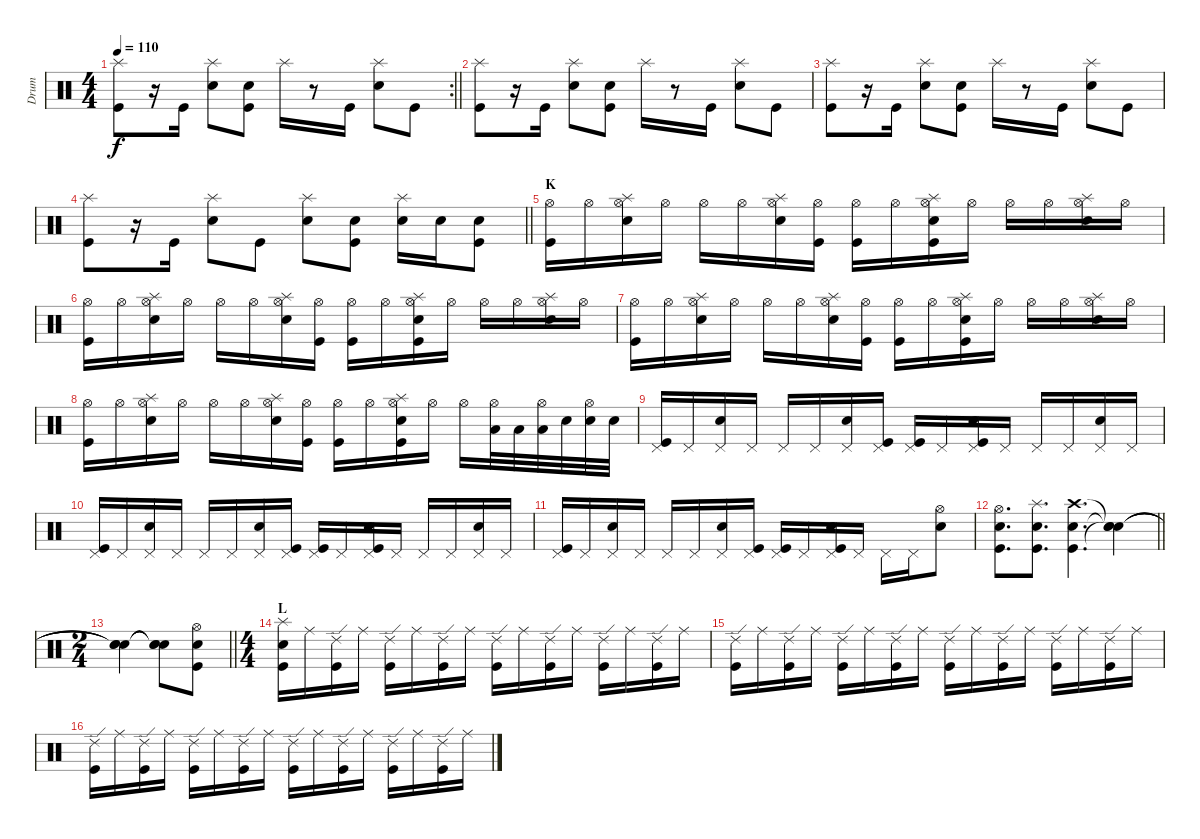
\track ("Drum" "Drum") {instrument percussion}
\staff {score}
\articulation defaults
\rc 2
\ts (4 4)
\tempo 110
\clef neutral
\barLineRight lightlight
\ks c
("Splash (hit)" "Kick (hit)").8{dy f} r.16 "Kick (hit)".16 ("Splash (hit)" "Snare (hit) 2").8 ("Snare (hit) 2" "Kick (hit)").8 "Splash (hit)".16 r.8 "Kick (hit)".16 ("Splash (hit)" "Snare (hit) 2").8 "Kick (hit)".8 |
("Splash (hit)" "Kick (hit)").8 r.16 "Kick (hit)".16 ("Splash (hit)" "Snare (hit) 2").8 ("Snare (hit) 2" "Kick (hit)").8 "Splash (hit)".16 r.8 "Kick (hit)".16 ("Splash (hit)" "Snare (hit) 2").8 "Kick (hit)".8 |
("Splash (hit)" "Kick (hit)").8 r.16 "Kick (hit)".16 ("Splash (hit)" "Snare (hit) 2").8 ("Snare (hit) 2" "Kick (hit)").8 "Splash (hit)".16 r.8 "Kick (hit)".16 ("Splash (hit)" "Snare (hit) 2").8 "Kick (hit)".8 |
\barLineRight lightlight
("Splash (hit)" "Kick (hit)").8 r.16 "Kick (hit)".16 ("Splash (hit)" "Snare (hit) 2").8 "Kick (hit)".8 ("Splash (hit)" "Snare (hit) 2").8 ("Snare (hit) 2" "Kick (hit)").8 ("Splash (hit)" "Snare (hit) 2").16 "Snare (hit) 2".16 ("Snare (hit) 2" "Kick (hit)").8 |
\section ("" "K")
("Hi-Hat (open)" "Kick (hit)").16 "Hi-Hat (open)".16 ("Hi-Hat (open)" "Splash (hit)" "Snare (hit) 2").16 "Hi-Hat (open)".16 "Hi-Hat (open)".16 "Hi-Hat (open)".16 ("Hi-Hat (open)" "Splash (hit)" "Snare (hit) 2").16 ("Hi-Hat (open)" "Kick (hit)").16 ("Hi-Hat (open)" "Kick (hit)").16 "Hi-Hat (open)".16 ("Hi-Hat (open)" "Splash (hit)" "Snare (hit) 2" "Kick (hit)").16 "Hi-Hat (open)".16 "Hi-Hat (open)".16 "Hi-Hat (open)".16 ("Hi-Hat (open)" "Splash (hit)" "Snare (hit) 2").16 "Hi-Hat (open)".16 |
("Hi-Hat (open)" "Kick (hit)").16 "Hi-Hat (open)".16 ("Hi-Hat (open)" "Splash (hit)" "Snare (hit) 2").16 "Hi-Hat (open)".16 "Hi-Hat (open)".16 "Hi-Hat (open)".16 ("Hi-Hat (open)" "Splash (hit)" "Snare (hit) 2").16 ("Hi-Hat (open)" "Kick (hit)").16 ("Hi-Hat (open)" "Kick (hit)").16 "Hi-Hat (open)".16 ("Hi-Hat (open)" "Splash (hit)" "Snare (hit) 2" "Kick (hit)").16 "Hi-Hat (open)".16 "Hi-Hat (open)".16 "Hi-Hat (open)".16 ("Hi-Hat (open)" "Splash (hit)" "Snare (hit) 2").16 "Hi-Hat (open)".16 |
("Hi-Hat (open)" "Kick (hit)").16 "Hi-Hat (open)".16 ("Hi-Hat (open)" "Splash (hit)" "Snare (hit) 2").16 "Hi-Hat (open)".16 "Hi-Hat (open)".16 "Hi-Hat (open)".16 ("Hi-Hat (open)" "Splash (hit)" "Snare (hit) 2").16 ("Hi-Hat (open)" "Kick (hit)").16 ("Hi-Hat (open)" "Kick (hit)").16 "Hi-Hat (open)".16 ("Hi-Hat (open)" "Splash (hit)" "Snare (hit) 2" "Kick (hit)").16 "Hi-Hat (open)".16 "Hi-Hat (open)".16 "Hi-Hat (open)".16 ("Hi-Hat (open)" "Splash (hit)" "Snare (hit) 2").16 "Hi-Hat (open)".16 |
("Hi-Hat (open)" "Kick (hit)").16 "Hi-Hat (open)".16 ("Hi-Hat (open)" "Splash (hit)" "Snare (hit) 2").16 "Hi-Hat (open)".16 "Hi-Hat (open)".16 "Hi-Hat (open)".16 ("Hi-Hat (open)" "Splash (hit)" "Snare (hit) 2").16 ("Hi-Hat (open)" "Kick (hit)").16 ("Hi-Hat (open)" "Kick (hit)").16 "Hi-Hat (open)".16 ("Hi-Hat (open)" "Splash (hit)" "Snare (hit) 2" "Kick (hit)").16 "Hi-Hat (open)".16 "Hi-Hat (open)".16 ("Hi-Hat (open)" "Low Tom (hit)").32 "Low Tom (hit)".32 ("Hi-Hat (open)" "Low Tom (hit)").32 "Snare (hit) 2".32 ("Hi-Hat (open)" "Snare (hit) 2").32 "Snare (hit) 2".32 |
("Pedal Hi-Hat (hit)" "Kick (hit)").16 "Pedal Hi-Hat (hit)".16 ("Pedal Hi-Hat (hit)" "Snare (hit) 2").16 "Pedal Hi-Hat (hit)".16 "Pedal Hi-Hat (hit)".16 "Pedal Hi-Hat (hit)".16 ("Pedal Hi-Hat (hit)" "Snare (hit) 2").16 ("Pedal Hi-Hat (hit)" "Kick (hit)").16 ("Pedal Hi-Hat (hit)" "Kick (hit)").16 "Pedal Hi-Hat (hit)".16 ("Pedal Hi-Hat (hit)" "Snare (hit) 2" "Kick (hit)").16 "Pedal Hi-Hat (hit)".16 "Pedal Hi-Hat (hit)".16 "Pedal Hi-Hat (hit)".16 ("Pedal Hi-Hat (hit)" "Snare (hit) 2").16 "Pedal Hi-Hat (hit)".16 |
("Pedal Hi-Hat (hit)" "Kick (hit)").16 "Pedal Hi-Hat (hit)".16 ("Pedal Hi-Hat (hit)" "Snare (hit) 2").16 "Pedal Hi-Hat (hit)".16 "Pedal Hi-Hat (hit)".16 "Pedal Hi-Hat (hit)".16 ("Pedal Hi-Hat (hit)" "Snare (hit) 2").16 ("Pedal Hi-Hat (hit)" "Kick (hit)").16 ("Pedal Hi-Hat (hit)" "Kick (hit)").16 "Pedal Hi-Hat (hit)".16 ("Pedal Hi-Hat (hit)" "Snare (hit) 2" "Kick (hit)").16 "Pedal Hi-Hat (hit)".16 "Pedal Hi-Hat (hit)".16 "Pedal Hi-Hat (hit)".16 ("Pedal Hi-Hat (hit)" "Snare (hit) 2").16 "Pedal Hi-Hat (hit)".16 |
("Pedal Hi-Hat (hit)" "Kick (hit)").16 "Pedal Hi-Hat (hit)".16 ("Pedal Hi-Hat (hit)" "Snare (hit) 2").16 "Pedal Hi-Hat (hit)".16 "Pedal Hi-Hat (hit)".16 "Pedal Hi-Hat (hit)".16 ("Pedal Hi-Hat (hit)" "Snare (hit) 2").16 ("Pedal Hi-Hat (hit)" "Kick (hit)").16 ("Pedal Hi-Hat (hit)" "Kick (hit)").16 "Pedal Hi-Hat (hit)".16 ("Pedal Hi-Hat (hit)" "Snare (hit) 2" "Kick (hit)").16 "Pedal Hi-Hat (hit)".16 "Pedal Hi-Hat (hit)".16 "Pedal Hi-Hat (hit)".16 ("Hi-Hat (open)" "Snare (hit) 2").8 |
\barLineRight lightlight
("Hi-Hat (open)" "Snare (hit) 2" "Kick (hit)").8{d} ("Splash (hit)" "Snare (hit) 2" "Kick (hit)").8{d} ("Crash high (hit)" "Snare (hit) 2" "Kick (hit)").4{d} ("Snare (hit)"{t} "Snare (hit)"{t} "Snare (hit)"{t}).4 |
\ts (2 4)
\barLineRight lightlight
("Snare (hit)"{t} "Snare (hit)"{t} "Snare (hit)"{t}).4 ("Snare (hit)"{t} "Snare (hit)"{t} "Snare (hit)"{t}).8 ("Hi-Hat (open)" "Snare (hit) 2" "Kick (hit)").8 |
\ts (4 4)
\section ("" "L")
("Splash (hit)" "Snare (hit) 2" "Kick (hit)").16 "Ride (middle)".16 ("Ride (edge) 2" "Kick (hit)").16 "Ride (middle)".16 ("Ride (edge) 2" "Kick (hit)").16 "Ride (middle)".16 ("Ride (edge) 2" "Kick (hit)").16 "Ride (middle)".16 ("Ride (edge) 2" "Kick (hit)").16 "Ride (middle)".16 ("Ride (edge) 2" "Kick (hit)").16 "Ride (middle)".16 ("Ride (edge) 2" "Kick (hit)").16 "Ride (middle)".16 ("Ride (edge) 2" "Kick (hit)").16 "Ride (middle)".16 |
("Ride (edge) 2" "Kick (hit)").16 "Ride (middle)".16 ("Ride (edge) 2" "Kick (hit)").16 "Ride (middle)".16 ("Ride (edge) 2" "Kick (hit)").16 "Ride (middle)".16 ("Ride (edge) 2" "Kick (hit)").16 "Ride (middle)".16 ("Ride (edge) 2" "Kick (hit)").16 "Ride (middle)".16 ("Ride (edge) 2" "Kick (hit)").16 "Ride (middle)".16 ("Ride (edge) 2" "Kick (hit)").16 "Ride (middle)".16 ("Ride (edge) 2" "Kick (hit)").16 "Ride (middle)".16 |
("Ride (edge) 2" "Kick (hit)").16 "Ride (middle)".16 ("Ride (edge) 2" "Kick (hit)").16 "Ride (middle)".16 ("Ride (edge) 2" "Kick (hit)").16 "Ride (middle)".16 ("Ride (edge) 2" "Kick (hit)").16 "Ride (middle)".16 ("Ride (edge) 2" "Kick (hit)").16 "Ride (middle)".16 ("Ride (edge) 2" "Kick (hit)").16 "Ride (middle)".16 ("Ride (edge) 2" "Kick (hit)").16 "Ride (middle)".16 ("Ride (edge) 2" "Kick (hit)").16 "Ride (middle)".16
